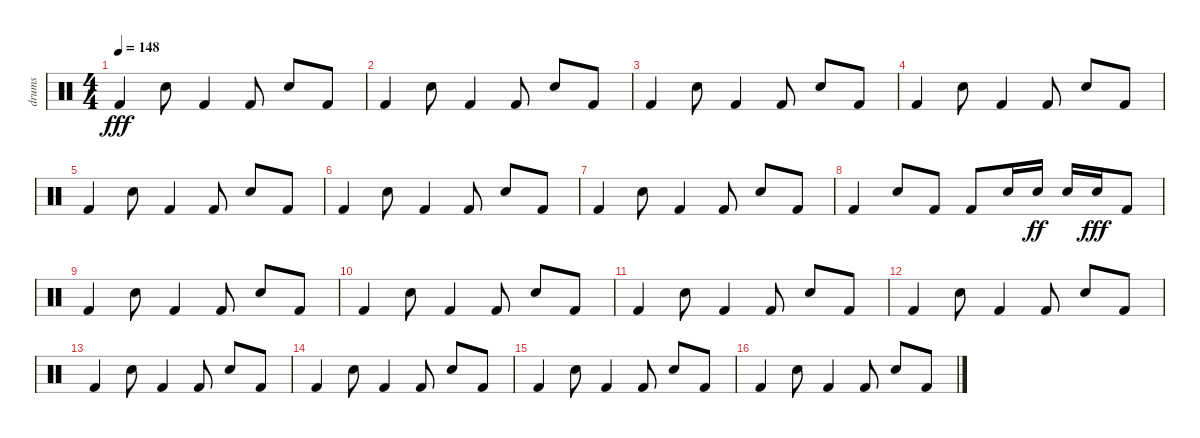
\track ("drums" "drums") {instrument percussion}
\staff {score}
\articulation defaults
\ts (4 4)
\tempo 148
\clef neutral
\ks c "Kick (hit) 2".4{dy fff} "Electric Snare (hit)".8 "Kick (hit) 2".4 "Kick (hit) 2".8 "Electric Snare (hit)".8 "Kick (hit) 2".8
|
"Kick (hit) 2".4 "Electric Snare (hit)".8 "Kick (hit) 2".4 "Kick (hit) 2".8 "Electric Snare (hit)".8 "Kick (hit) 2".8 |
"Kick (hit) 2".4 "Electric Snare (hit)".8 "Kick (hit) 2".4 "Kick (hit) 2".8 "Electric Snare (hit)".8 "Kick (hit) 2".8 |
"Kick (hit) 2".4 "Electric Snare (hit)".8 "Kick (hit) 2".4 "Kick (hit) 2".8 "Electric Snare (hit)".8 "Kick (hit) 2".8 |
"Kick (hit) 2".4 "Electric Snare (hit)".8 "Kick (hit) 2".4 "Kick (hit) 2".8 "Electric Snare (hit)".8 "Kick (hit) 2".8 |
"Kick (hit) 2".4 "Electric Snare (hit)".8 "Kick (hit) 2".4 "Kick (hit) 2".8 "Electric Snare (hit)".8 "Kick (hit) 2".8 |
"Kick (hit) 2".4 "Electric Snare (hit)".8 "Kick (hit) 2".4 "Kick (hit) 2".8 "Electric Snare (hit)".8 "Kick (hit) 2".8 |
"Kick (hit) 2".4 "Electric Snare (hit)".8 "Kick (hit) 2".8 "Kick (hit) 2".8 "Electric Snare (hit)".16 "Electric Snare (hit)".16{dy ff} "Electric Snare (hit)".16 "Electric Snare (hit)".16{dy fff} "Kick (hit) 2".8 |
"Kick (hit) 2".4 "Electric Snare (hit)".8 "Kick (hit) 2".4 "Kick (hit) 2".8 "Electric Snare (hit)".8 "Kick (hit) 2".8 |
"Kick (hit) 2".4 "Electric Snare (hit)".8 "Kick (hit) 2".4 "Kick (hit) 2".8 "Electric Snare (hit)".8 "Kick (hit) 2".8 |
"Kick (hit) 2".4 "Electric Snare (hit)".8 "Kick (hit) 2".4 "Kick (hit) 2".8 "Electric Snare (hit)".8 "Kick (hit) 2".8 |
"Kick (hit) 2".4 "Electric Snare (hit)".8 "Kick (hit) 2".4 "Kick (hit) 2".8 "Electric Snare (hit)".8 "Kick (hit) 2".8 |
"Kick (hit) 2".4 "Electric Snare (hit)".8 "Kick (hit) 2".4 "Kick (hit) 2".8 "Electric Snare (hit)".8 "Kick (hit) 2".8 |
"Kick (hit) 2".4 "Electric Snare (hit)".8 "Kick (hit) 2".4 "Kick (hit) 2".8 "Electric Snare (hit)".8 "Kick (hit) 2".8 |
"Kick (hit) 2".4 "Electric Snare (hit)".8 "Kick (hit) 2".4 "Kick (hit) 2".8 "Electric Snare (hit)".8 "Kick (hit) 2".8 |
"Kick (hit) 2".4 "Electric Snare (hit)".8 "Kick (hit) 2".4 "Kick (hit) 2".8 "Electric Snare (hit)".8 "Kick (hit) 2".8
